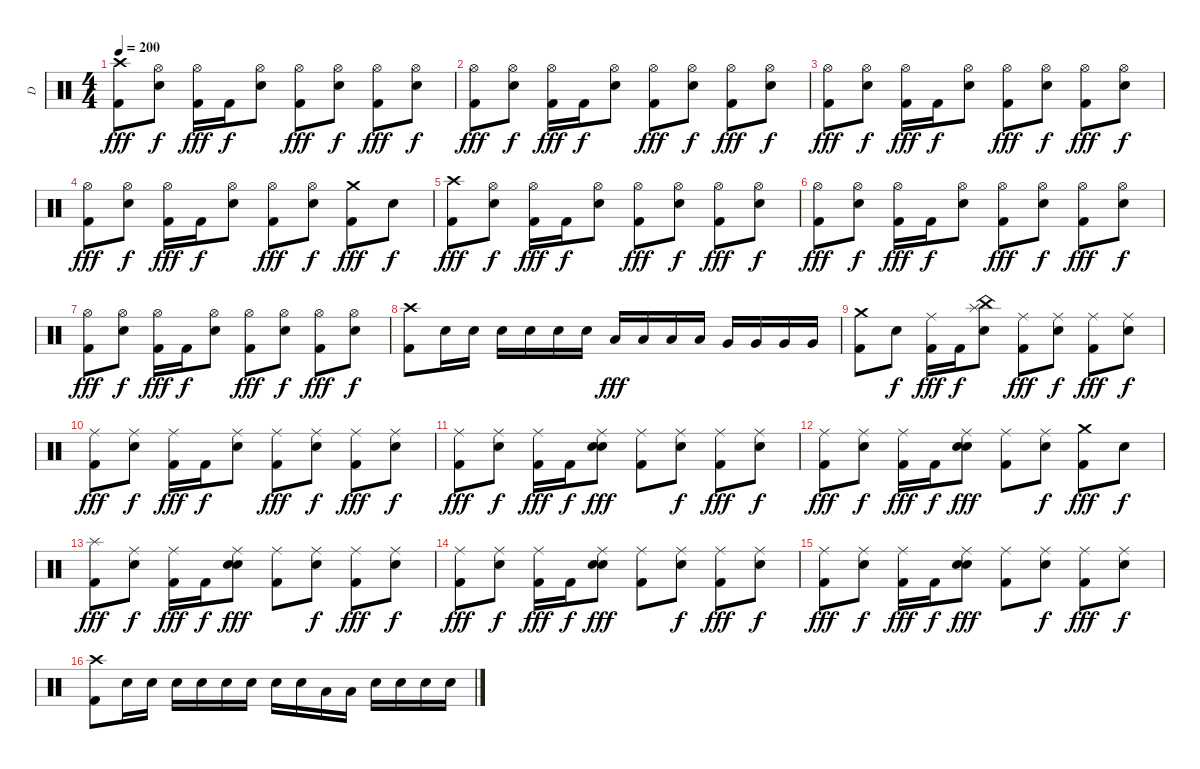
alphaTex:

\track ("D" "D") {instrument percussion}
\staff {score}
\articulation defaults
\ts (4 4)
\tempo 200
\clef neutral
\ks c
("Crash high (hit)" "Kick (hit) 2").8{dy fff} ("Hi-Hat (open)" "Electric Snare (hit)").8{dy f} ("Hi-Hat (open)" "Kick (hit) 2").16{dy fff} "Kick (hit) 2".16{dy f} ("Hi-Hat (open)" "Electric Snare (hit)").8 ("Hi-Hat (open)" "Kick (hit) 2").8{dy fff} ("Hi-Hat (open)" "Electric Snare (hit)").8{dy f} ("Hi-Hat (open)" "Kick (hit) 2").8{dy fff} ("Hi-Hat (open)" "Electric Snare (hit)").8{dy f} |
("Hi-Hat (open)" "Kick (hit) 2").8{dy fff} ("Hi-Hat (open)" "Electric Snare (hit)").8{dy f} ("Hi-Hat (open)" "Kick (hit) 2").16{dy fff} "Kick (hit) 2".16{dy f} ("Hi-Hat (open)" "Electric Snare (hit)").8 ("Hi-Hat (open)" "Kick (hit) 2").8{dy fff} ("Hi-Hat (open)" "Electric Snare (hit)").8{dy f} ("Hi-Hat (open)" "Kick (hit) 2").8{dy fff} ("Hi-Hat (open)" "Electric Snare (hit)").8{dy f} |
("Hi-Hat (open)" "Kick (hit) 2").8{dy fff} ("Hi-Hat (open)" "Electric Snare (hit)").8{dy f} ("Hi-Hat (open)" "Kick (hit) 2").16{dy fff} "Kick (hit) 2".16{dy f} ("Hi-Hat (open)" "Electric Snare (hit)").8 ("Hi-Hat (open)" "Kick (hit) 2").8{dy fff} ("Hi-Hat (open)" "Electric Snare (hit)").8{dy f} ("Hi-Hat (open)" "Kick (hit) 2").8{dy fff} ("Hi-Hat (open)" "Electric Snare (hit)").8{dy f} |
("Hi-Hat (open)" "Kick (hit) 2").8{dy fff} ("Hi-Hat (open)" "Electric Snare (hit)").8{dy f} ("Hi-Hat (open)" "Kick (hit) 2").16{dy fff} "Kick (hit) 2".16{dy f} ("Hi-Hat (open)" "Electric Snare (hit)").8 ("Hi-Hat (open)" "Kick (hit) 2").8{dy fff} ("Hi-Hat (open)" "Electric Snare (hit)").8{dy f} ("Crash medium (hit)" "Kick (hit) 2").8{dy fff} "Electric Snare (hit)".8{dy f} |
("Crash high (hit)" "Kick (hit) 2").8{dy fff} ("Hi-Hat (open)" "Electric Snare (hit)").8{dy f} ("Hi-Hat (open)" "Kick (hit) 2").16{dy fff} "Kick (hit) 2".16{dy f} ("Hi-Hat (open)" "Electric Snare (hit)").8 ("Hi-Hat (open)" "Kick (hit) 2").8{dy fff} ("Hi-Hat (open)" "Electric Snare (hit)").8{dy f} ("Hi-Hat (open)" "Kick (hit) 2").8{dy fff} ("Hi-Hat (open)" "Electric Snare (hit)").8{dy f} |
("Hi-Hat (open)" "Kick (hit) 2").8{dy fff} ("Hi-Hat (open)" "Electric Snare (hit)").8{dy f} ("Hi-Hat (open)" "Kick (hit) 2").16{dy fff} "Kick (hit) 2".16{dy f} ("Hi-Hat (open)" "Electric Snare (hit)").8 ("Hi-Hat (open)" "Kick (hit) 2").8{dy fff} ("Hi-Hat (open)" "Electric Snare (hit)").8{dy f} ("Hi-Hat (open)" "Kick (hit) 2").8{dy fff} ("Hi-Hat (open)" "Electric Snare (hit)").8{dy f} |
("Hi-Hat (open)" "Kick (hit) 2").8{dy fff} ("Hi-Hat (open)" "Electric Snare (hit)").8{dy f} ("Hi-Hat (open)" "Kick (hit) 2").16{dy fff} "Kick (hit) 2".16{dy f} ("Hi-Hat (open)" "Electric Snare (hit)").8 ("Hi-Hat (open)" "Kick (hit) 2").8{dy fff} ("Hi-Hat (open)" "Electric Snare (hit)").8{dy f} ("Hi-Hat (open)" "Kick (hit) 2").8{dy fff} ("Hi-Hat (open)" "Electric Snare (hit)").8{dy f} |
("Crash high (hit)" "Kick (hit) 2").8 "Electric Snare (hit)".16 "Electric Snare (hit)".16 "Electric Snare (hit)".16 "Electric Snare (hit)".16 "Electric Snare (hit)".16 "Electric Snare (hit)".16 "Low Tom (hit)".16{dy fff} "Low Tom (hit)".16 "Low Tom (hit)".16 "Low Tom (hit)".16 "Very Low Tom (hit)".16 "Very Low Tom (hit)".16 "Very Low Tom (hit)".16 "Very Low Tom (hit)".16 |
("Crash medium (hit)" "Kick (hit) 2").8 "Electric Snare (hit)".8{dy f} ("Ride (middle)" "Kick (hit) 2").16{dy fff} "Kick (hit) 2".16{dy f} ("Splash (hit)" "China (hit)" "Electric Snare (hit)").8 ("Ride (middle)" "Kick (hit) 2").8{dy fff} ("Ride (middle)" "Electric Snare (hit)").8{dy f} ("Ride (middle)" "Kick (hit) 2").8{dy fff} ("Ride (middle)" "Electric Snare (hit)").8{dy f} |
("Ride (middle)" "Kick (hit) 2").8{dy fff} ("Ride (middle)" "Electric Snare (hit)").8{dy f} ("Ride (middle)" "Kick (hit) 2").16{dy fff} "Kick (hit) 2".16{dy f} ("Ride (middle)" "Electric Snare (hit)").8 ("Ride (middle)" "Kick (hit) 2").8{dy fff} ("Ride (middle)" "Electric Snare (hit)").8{dy f} ("Ride (middle)" "Kick (hit) 2").8{dy fff} ("Ride (middle)" "Electric Snare (hit)").8{dy f} |
("Ride (middle)" "Kick (hit) 2").8{dy fff} ("Ride (middle)" "Electric Snare (hit)").8{dy f} ("Ride (middle)" "Kick (hit) 2").16{dy fff} "Kick (hit) 2".16{dy f} ("Ride (middle)" "Electric Snare (hit)" "Electric Snare (hit)").8{dy fff} ("Ride (middle)" "Kick (hit) 2").8 ("Ride (middle)" "Electric Snare (hit)").8{dy f} ("Ride (middle)" "Kick (hit) 2").8{dy fff} ("Ride (middle)" "Electric Snare (hit)").8{dy f} |
("Ride (middle)" "Kick (hit) 2").8{dy fff} ("Ride (middle)" "Electric Snare (hit)").8{dy f} ("Ride (middle)" "Kick (hit) 2").16{dy fff} "Kick (hit) 2".16{dy f} ("Ride (middle)" "Electric Snare (hit)" "Electric Snare (hit)").8{dy fff} ("Ride (middle)" "Kick (hit) 2").8 ("Ride (middle)" "Electric Snare (hit)").8{dy f} ("Crash medium (hit)" "Kick (hit) 2").8{dy fff} "Electric Snare (hit)".8{dy f} |
("Splash (hit)" "Kick (hit) 2").8{dy fff} ("Ride (middle)" "Electric Snare (hit)").8{dy f} ("Ride (middle)" "Kick (hit) 2").16{dy fff} "Kick (hit) 2".16{dy f} ("Ride (middle)" "Electric Snare (hit)" "Electric Snare (hit)").8{dy fff} ("Ride (middle)" "Kick (hit) 2").8 ("Ride (middle)" "Electric Snare (hit)").8{dy f} ("Ride (middle)" "Kick (hit) 2").8{dy fff} ("Ride (middle)" "Electric Snare (hit)").8{dy f} |
("Ride (middle)" "Kick (hit) 2").8{dy fff} ("Ride (middle)" "Electric Snare (hit)").8{dy f} ("Ride (middle)" "Kick (hit) 2").16{dy fff} "Kick (hit) 2".16{dy f} ("Ride (middle)" "Electric Snare (hit)" "Electric Snare (hit)").8{dy fff} ("Ride (middle)" "Kick (hit) 2").8 ("Ride (middle)" "Electric Snare (hit)").8{dy f} ("Ride (middle)" "Kick (hit) 2").8{dy fff} ("Ride (middle)" "Electric Snare (hit)").8{dy f} |
("Ride (middle)" "Kick (hit) 2").8{dy fff} ("Ride (middle)" "Electric Snare (hit)").8{dy f} ("Ride (middle)" "Kick (hit) 2").16{dy fff} "Kick (hit) 2".16{dy f} ("Ride (middle)" "Electric Snare (hit)" "Electric Snare (hit)").8{dy fff} ("Ride (middle)" "Kick (hit) 2").8 ("Ride (middle)" "Electric Snare (hit)").8{dy f} ("Ride (middle)" "Kick (hit) 2").8{dy fff} ("Ride (middle)" "Electric Snare (hit)").8{dy f} |
("Crash high (hit)" "Kick (hit) 2").8 "Electric Snare (hit)".16 "Electric Snare (hit)".16 "Electric Snare (hit)".16 "Electric Snare (hit)".16 "Electric Snare (hit)".16 "Electric Snare (hit)".16 "Electric Snare (hit)".16 "Electric Snare (hit)".16 "Low Tom (hit)".16 "Low Tom (hit)".16 "Electric Snare (hit)".16 "Electric Snare (hit)".16 "Electric Snare (hit)".16 "Electric Snare (hit)".16
